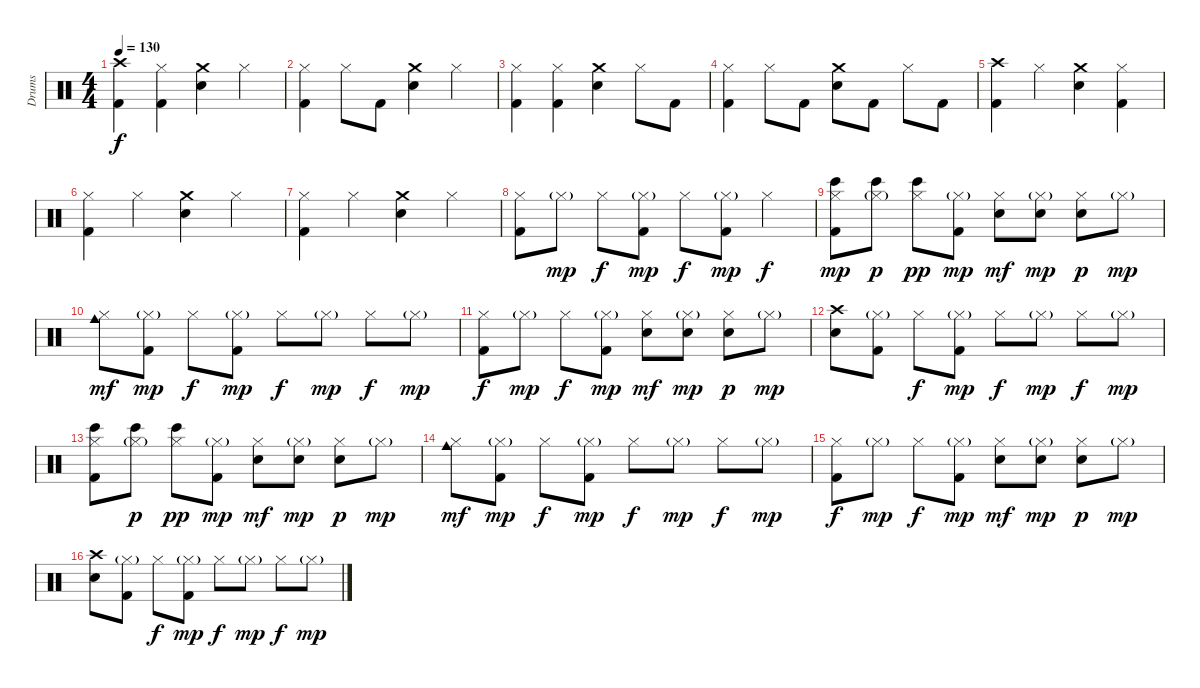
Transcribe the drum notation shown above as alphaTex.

\track ("Drums" "Drums") {instrument percussion}
\staff {score}
\articulation defaults
\ts (4 4)
\tempo 130
\clef neutral
\ks c
("Crash high (hit)" "Kick (hit) 2").4{dy f} ("Hi-Hat (closed)" "Kick (hit) 2").4 ("Crash medium (hit)" "Snare (hit) 2").4 "Hi-Hat (closed)".4 |
("Hi-Hat (closed)" "Kick (hit) 2").4 "Hi-Hat (closed)".8 "Kick (hit) 2".8 ("Crash medium (hit)" "Snare (hit) 2").4 "Hi-Hat (closed)".4 |
("Hi-Hat (closed)" "Kick (hit) 2").4 ("Hi-Hat (closed)" "Kick (hit) 2").4 ("Crash medium (hit)" "Snare (hit) 2").4 "Hi-Hat (closed)".8 "Kick (hit) 2".8 |
("Hi-Hat (closed)" "Kick (hit) 2").4 "Hi-Hat (closed)".8 "Kick (hit) 2".8 ("Crash medium (hit)" "Snare (hit) 2").8 "Kick (hit) 2".8 "Hi-Hat (closed)".8 "Kick (hit) 2".8 |
("Crash high (hit)" "Kick (hit) 2").4 "Hi-Hat (closed)".4 ("Crash medium (hit)" "Snare (hit) 2").4 ("Hi-Hat (closed)" "Kick (hit) 2").4 |
("Hi-Hat (closed)" "Kick (hit) 2").4 "Hi-Hat (closed)".4 ("Crash medium (hit)" "Snare (hit) 2").4 "Hi-Hat (closed)".4 |
("Hi-Hat (closed)" "Kick (hit) 2").4 "Hi-Hat (closed)".4 ("Crash medium (hit)" "Snare (hit) 2").4 "Hi-Hat (closed)".4 |
("Hi-Hat (closed)" "Kick (hit) 2").8 "Hi-Hat (closed)"{g}.8{dy mp} "Hi-Hat (closed)".8{dy f} ("Hi-Hat (closed)"{g} "Kick (hit) 2").8{dy mp} "Hi-Hat (closed)".8{dy f} ("Hi-Hat (closed)"{g} "Kick (hit) 2").8{dy mp} "Hi-Hat (closed)".4{dy f} |
("Hi-Hat (closed)" "Bongo High (hit)" "Kick (hit) 2").8{dy mp} ("Hi-Hat (closed)"{g} "Bongo High (hit)").8{dy p} ("Hi-Hat (closed)" "Bongo High (hit)").8{dy pp} ("Hi-Hat (closed)"{g} "Kick (hit) 2").8{dy mp} ("Hi-Hat (closed)" "Hand Clap (hit)").8{dy mf} ("Hi-Hat (closed)"{g} "Hand Clap (hit)").8{dy mp} ("Hi-Hat (closed)" "Hand Clap (hit)").8{dy p} "Hi-Hat (closed)"{g}.8{dy mp} |
("Hi-Hat (closed)" "Cowbell medium (hit)").8{dy mf} ("Hi-Hat (closed)"{g} "Kick (hit) 2").8{dy mp} "Hi-Hat (closed)".8{dy f} ("Hi-Hat (closed)"{g} "Kick (hit) 2").8{dy mp} "Hi-Hat (closed)".8{dy f} "Hi-Hat (closed)"{g}.8{dy mp} "Hi-Hat (closed)".8{dy f} "Hi-Hat (closed)"{g}.8{dy mp} |
("Hi-Hat (closed)" "Kick (hit) 2").8{dy f} "Hi-Hat (closed)"{g}.8{dy mp} "Hi-Hat (closed)".8{dy f} ("Hi-Hat (closed)"{g} "Kick (hit) 2").8{dy mp} ("Hi-Hat (closed)" "Hand Clap (hit)").8{dy mf} ("Hi-Hat (closed)"{g} "Hand Clap (hit)").8{dy mp} ("Hi-Hat (closed)" "Hand Clap (hit)").8{dy p} "Hi-Hat (closed)"{g}.8{dy mp} |
("Crash high (hit)" "Snare (hit) 2").8 ("Hi-Hat (closed)"{g} "Kick (hit) 2").8 "Hi-Hat (closed)".8{dy f} ("Hi-Hat (closed)"{g} "Kick (hit) 2").8{dy mp} "Hi-Hat (closed)".8{dy f} "Hi-Hat (closed)"{g}.8{dy mp} "Hi-Hat (closed)".8{dy f} "Hi-Hat (closed)"{g}.8{dy mp} |
("Hi-Hat (closed)" "Bongo High (hit)" "Kick (hit) 2").8 ("Hi-Hat (closed)"{g} "Bongo High (hit)").8{dy p} ("Hi-Hat (closed)" "Bongo High (hit)").8{dy pp} ("Hi-Hat (closed)"{g} "Kick (hit) 2").8{dy mp} ("Hi-Hat (closed)" "Hand Clap (hit)").8{dy mf} ("Hi-Hat (closed)"{g} "Hand Clap (hit)").8{dy mp} ("Hi-Hat (closed)" "Hand Clap (hit)").8{dy p} "Hi-Hat (closed)"{g}.8{dy mp} |
("Hi-Hat (closed)" "Cowbell medium (hit)").8{dy mf volume 12} ("Hi-Hat (closed)"{g} "Kick (hit) 2").8{dy mp} "Hi-Hat (closed)".8{dy f} ("Hi-Hat (closed)"{g} "Kick (hit) 2").8{dy mp} "Hi-Hat (closed)".8{dy f} "Hi-Hat (closed)"{g}.8{dy mp} "Hi-Hat (closed)".8{dy f} "Hi-Hat (closed)"{g}.8{dy mp} |
("Hi-Hat (closed)" "Kick (hit) 2").8{dy f} "Hi-Hat (closed)"{g}.8{dy mp} "Hi-Hat (closed)".8{dy f} ("Hi-Hat (closed)"{g} "Kick (hit) 2").8{dy mp} ("Hi-Hat (closed)" "Hand Clap (hit)").8{dy mf} ("Hi-Hat (closed)"{g} "Hand Clap (hit)").8{dy mp} ("Hi-Hat (closed)" "Hand Clap (hit)").8{dy p} "Hi-Hat (closed)"{g}.8{dy mp} |
("Crash high (hit)" "Snare (hit) 2").8 ("Hi-Hat (closed)"{g} "Kick (hit) 2").8 "Hi-Hat (closed)".8{dy f} ("Hi-Hat (closed)"{g} "Kick (hit) 2").8{dy mp} "Hi-Hat (closed)".8{dy f} "Hi-Hat (closed)"{g}.8{dy mp} "Hi-Hat (closed)".8{dy f} "Hi-Hat (closed)"{g}.8{dy mp}
